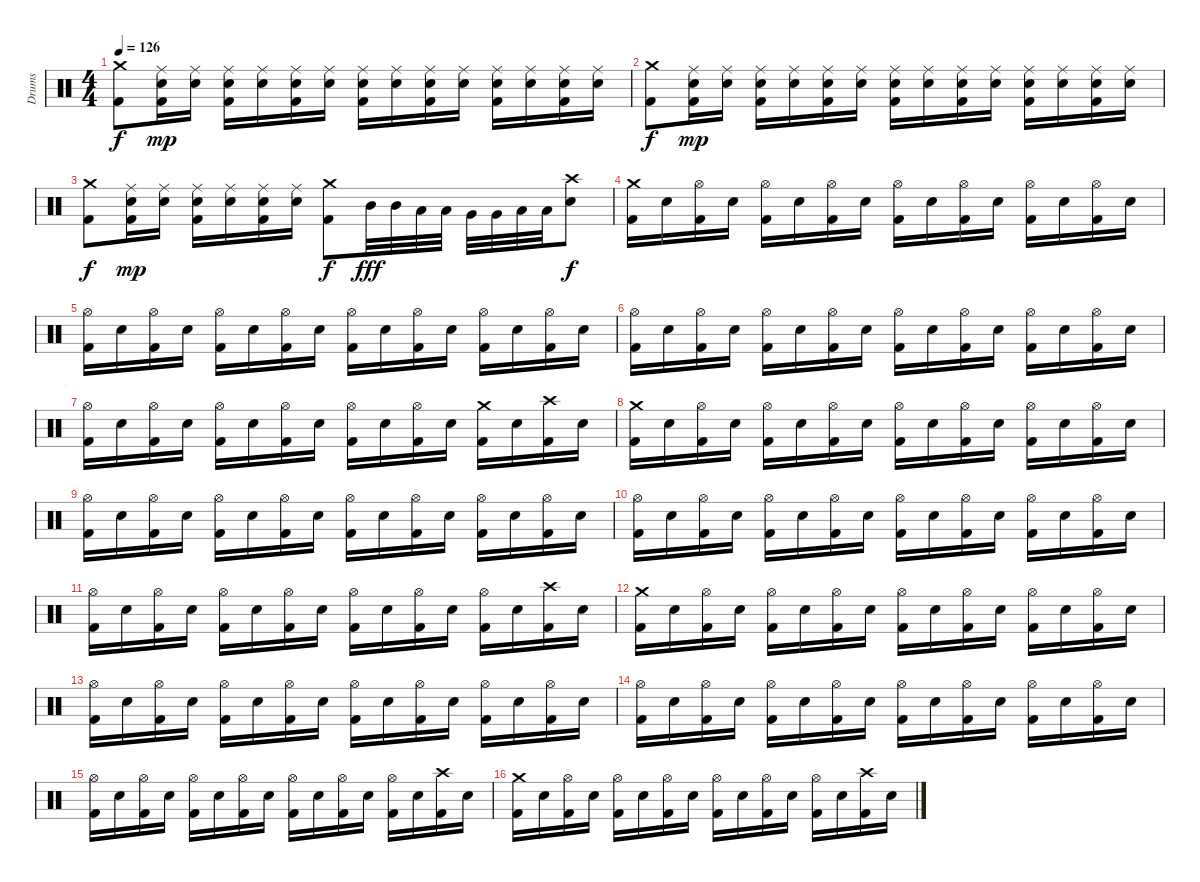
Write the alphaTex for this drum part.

\track ("Drums" "Drums") {instrument percussion}
\staff {score}
\articulation defaults
\ts (4 4)
\tempo 126
\clef neutral
\ks c
("Kick (hit) 2" "Crash medium (hit)").8{dy f} ("Kick (hit) 2" "Electric Snare (hit)" "Ride (middle)").16{dy mp} ("Electric Snare (hit)" "Ride (middle)").16 ("Kick (hit) 2" "Electric Snare (hit)" "Ride (middle)").16 ("Electric Snare (hit)" "Ride (middle)").16 ("Kick (hit) 2" "Electric Snare (hit)" "Ride (middle)").16 ("Electric Snare (hit)" "Ride (middle)").16 ("Kick (hit) 2" "Electric Snare (hit)" "Ride (middle)").16 ("Electric Snare (hit)" "Ride (middle)").16 ("Kick (hit) 2" "Electric Snare (hit)" "Ride (middle)").16 ("Electric Snare (hit)" "Ride (middle)").16 ("Kick (hit) 2" "Electric Snare (hit)" "Ride (middle)").16 ("Electric Snare (hit)" "Ride (middle)").16 ("Kick (hit) 2" "Electric Snare (hit)" "Ride (middle)").16 ("Electric Snare (hit)" "Ride (middle)").16 |
("Kick (hit) 2" "Crash medium (hit)").8{dy f} ("Kick (hit) 2" "Electric Snare (hit)" "Ride (middle)").16{dy mp} ("Electric Snare (hit)" "Ride (middle)").16 ("Kick (hit) 2" "Electric Snare (hit)" "Ride (middle)").16 ("Electric Snare (hit)" "Ride (middle)").16 ("Kick (hit) 2" "Electric Snare (hit)" "Ride (middle)").16 ("Electric Snare (hit)" "Ride (middle)").16 ("Kick (hit) 2" "Electric Snare (hit)" "Ride (middle)").16 ("Electric Snare (hit)" "Ride (middle)").16 ("Kick (hit) 2" "Electric Snare (hit)" "Ride (middle)").16 ("Electric Snare (hit)" "Ride (middle)").16 ("Kick (hit) 2" "Electric Snare (hit)" "Ride (middle)").16 ("Electric Snare (hit)" "Ride (middle)").16 ("Kick (hit) 2" "Electric Snare (hit)" "Ride (middle)").16 ("Electric Snare (hit)" "Ride (middle)").16 |
("Kick (hit) 2" "Crash medium (hit)").8{dy f} ("Kick (hit) 2" "Electric Snare (hit)" "Ride (middle)").16{dy mp} ("Electric Snare (hit)" "Ride (middle)").16 ("Kick (hit) 2" "Electric Snare (hit)" "Ride (middle)").16 ("Electric Snare (hit)" "Ride (middle)").16 ("Kick (hit) 2" "Electric Snare (hit)" "Ride (middle)").16 ("Electric Snare (hit)" "Ride (middle)").16 ("Kick (hit) 2" "Crash medium (hit)").8{dy f} "Mid Tom (hit)".32{dy fff} "Mid Tom (hit)".32 "Low Tom (hit)".32 "Low Tom (hit)".32 "Very Low Tom (hit)".32 "Very Low Tom (hit)".32 "Low Floor Tom (hit)".32 "Low Floor Tom (hit)".32 ("Electric Snare (hit)" "Crash high (hit)").8{dy f} |
("Kick (hit) 2" "Crash medium (hit)").16 "Electric Snare (hit)".16 ("Kick (hit) 2" "Hi-Hat (open)").16 "Electric Snare (hit)".16 ("Kick (hit) 2" "Hi-Hat (open)").16 "Electric Snare (hit)".16 ("Kick (hit) 2" "Hi-Hat (open)").16 "Electric Snare (hit)".16 ("Kick (hit) 2" "Hi-Hat (open)").16 "Electric Snare (hit)".16 ("Kick (hit) 2" "Hi-Hat (open)").16 "Electric Snare (hit)".16 ("Kick (hit) 2" "Hi-Hat (open)").16 "Electric Snare (hit)".16 ("Kick (hit) 2" "Hi-Hat (open)").16 "Electric Snare (hit)".16 |
("Kick (hit) 2" "Hi-Hat (open)").16 "Electric Snare (hit)".16 ("Kick (hit) 2" "Hi-Hat (open)").16 "Electric Snare (hit)".16 ("Kick (hit) 2" "Hi-Hat (open)").16 "Electric Snare (hit)".16 ("Kick (hit) 2" "Hi-Hat (open)").16 "Electric Snare (hit)".16 ("Kick (hit) 2" "Hi-Hat (open)").16 "Electric Snare (hit)".16 ("Kick (hit) 2" "Hi-Hat (open)").16 "Electric Snare (hit)".16 ("Kick (hit) 2" "Hi-Hat (open)").16 "Electric Snare (hit)".16 ("Kick (hit) 2" "Hi-Hat (open)").16 "Electric Snare (hit)".16 |
("Kick (hit) 2" "Hi-Hat (open)").16 "Electric Snare (hit)".16 ("Kick (hit) 2" "Hi-Hat (open)").16 "Electric Snare (hit)".16 ("Kick (hit) 2" "Hi-Hat (open)").16 "Electric Snare (hit)".16 ("Kick (hit) 2" "Hi-Hat (open)").16 "Electric Snare (hit)".16 ("Kick (hit) 2" "Hi-Hat (open)").16 "Electric Snare (hit)".16 ("Kick (hit) 2" "Hi-Hat (open)").16 "Electric Snare (hit)".16 ("Kick (hit) 2" "Hi-Hat (open)").16 "Electric Snare (hit)".16 ("Kick (hit) 2" "Hi-Hat (open)").16 "Electric Snare (hit)".16 |
("Kick (hit) 2" "Hi-Hat (open)").16 "Electric Snare (hit)".16 ("Kick (hit) 2" "Hi-Hat (open)").16 "Electric Snare (hit)".16 ("Kick (hit) 2" "Hi-Hat (open)").16 "Electric Snare (hit)".16 ("Kick (hit) 2" "Hi-Hat (open)").16 "Electric Snare (hit)".16 ("Kick (hit) 2" "Hi-Hat (open)").16 "Electric Snare (hit)".16 ("Kick (hit) 2" "Hi-Hat (open)").16 "Electric Snare (hit)".16 ("Kick (hit) 2" "Crash medium (hit)").16 "Electric Snare (hit)".16 ("Kick (hit) 2" "Crash high (hit)").16 "Electric Snare (hit)".16 |
("Kick (hit) 2" "Crash medium (hit)").16 "Electric Snare (hit)".16 ("Kick (hit) 2" "Hi-Hat (open)").16 "Electric Snare (hit)".16 ("Kick (hit) 2" "Hi-Hat (open)").16 "Electric Snare (hit)".16 ("Kick (hit) 2" "Hi-Hat (open)").16 "Electric Snare (hit)".16 ("Kick (hit) 2" "Hi-Hat (open)").16 "Electric Snare (hit)".16 ("Kick (hit) 2" "Hi-Hat (open)").16 "Electric Snare (hit)".16 ("Kick (hit) 2" "Hi-Hat (open)").16 "Electric Snare (hit)".16 ("Kick (hit) 2" "Hi-Hat (open)").16 "Electric Snare (hit)".16 |
("Kick (hit) 2" "Hi-Hat (open)").16 "Electric Snare (hit)".16 ("Kick (hit) 2" "Hi-Hat (open)").16 "Electric Snare (hit)".16 ("Kick (hit) 2" "Hi-Hat (open)").16 "Electric Snare (hit)".16 ("Kick (hit) 2" "Hi-Hat (open)").16 "Electric Snare (hit)".16 ("Kick (hit) 2" "Hi-Hat (open)").16 "Electric Snare (hit)".16 ("Kick (hit) 2" "Hi-Hat (open)").16 "Electric Snare (hit)".16 ("Kick (hit) 2" "Hi-Hat (open)").16 "Electric Snare (hit)".16 ("Kick (hit) 2" "Hi-Hat (open)").16 "Electric Snare (hit)".16 |
("Kick (hit) 2" "Hi-Hat (open)").16 "Electric Snare (hit)".16 ("Kick (hit) 2" "Hi-Hat (open)").16 "Electric Snare (hit)".16 ("Kick (hit) 2" "Hi-Hat (open)").16 "Electric Snare (hit)".16 ("Kick (hit) 2" "Hi-Hat (open)").16 "Electric Snare (hit)".16 ("Kick (hit) 2" "Hi-Hat (open)").16 "Electric Snare (hit)".16 ("Kick (hit) 2" "Hi-Hat (open)").16 "Electric Snare (hit)".16 ("Kick (hit) 2" "Hi-Hat (open)").16 "Electric Snare (hit)".16 ("Kick (hit) 2" "Hi-Hat (open)").16 "Electric Snare (hit)".16 |
("Kick (hit) 2" "Hi-Hat (open)").16 "Electric Snare (hit)".16 ("Kick (hit) 2" "Hi-Hat (open)").16 "Electric Snare (hit)".16 ("Kick (hit) 2" "Hi-Hat (open)").16 "Electric Snare (hit)".16 ("Kick (hit) 2" "Hi-Hat (open)").16 "Electric Snare (hit)".16 ("Kick (hit) 2" "Hi-Hat (open)").16 "Electric Snare (hit)".16 ("Kick (hit) 2" "Hi-Hat (open)").16 "Electric Snare (hit)".16 ("Kick (hit) 2" "Hi-Hat (open)").16 "Electric Snare (hit)".16 ("Kick (hit) 2" "Crash high (hit)").16 "Electric Snare (hit)".16 |
("Kick (hit) 2" "Crash medium (hit)").16 "Electric Snare (hit)".16 ("Kick (hit) 2" "Hi-Hat (open)").16 "Electric Snare (hit)".16 ("Kick (hit) 2" "Hi-Hat (open)").16 "Electric Snare (hit)".16 ("Kick (hit) 2" "Hi-Hat (open)").16 "Electric Snare (hit)".16 ("Kick (hit) 2" "Hi-Hat (open)").16 "Electric Snare (hit)".16 ("Kick (hit) 2" "Hi-Hat (open)").16 "Electric Snare (hit)".16 ("Kick (hit) 2" "Hi-Hat (open)").16 "Electric Snare (hit)".16 ("Kick (hit) 2" "Hi-Hat (open)").16 "Electric Snare (hit)".16 |
("Kick (hit) 2" "Hi-Hat (open)").16 "Electric Snare (hit)".16 ("Kick (hit) 2" "Hi-Hat (open)").16 "Electric Snare (hit)".16 ("Kick (hit) 2" "Hi-Hat (open)").16 "Electric Snare (hit)".16 ("Kick (hit) 2" "Hi-Hat (open)").16 "Electric Snare (hit)".16 ("Kick (hit) 2" "Hi-Hat (open)").16 "Electric Snare (hit)".16 ("Kick (hit) 2" "Hi-Hat (open)").16 "Electric Snare (hit)".16 ("Kick (hit) 2" "Hi-Hat (open)").16 "Electric Snare (hit)".16 ("Kick (hit) 2" "Hi-Hat (open)").16 "Electric Snare (hit)".16 |
("Kick (hit) 2" "Hi-Hat (open)").16 "Electric Snare (hit)".16 ("Kick (hit) 2" "Hi-Hat (open)").16 "Electric Snare (hit)".16 ("Kick (hit) 2" "Hi-Hat (open)").16 "Electric Snare (hit)".16 ("Kick (hit) 2" "Hi-Hat (open)").16 "Electric Snare (hit)".16 ("Kick (hit) 2" "Hi-Hat (open)").16 "Electric Snare (hit)".16 ("Kick (hit) 2" "Hi-Hat (open)").16 "Electric Snare (hit)".16 ("Kick (hit) 2" "Hi-Hat (open)").16 "Electric Snare (hit)".16 ("Kick (hit) 2" "Hi-Hat (open)").16 "Electric Snare (hit)".16 |
("Kick (hit) 2" "Hi-Hat (open)").16 "Electric Snare (hit)".16 ("Kick (hit) 2" "Hi-Hat (open)").16 "Electric Snare (hit)".16 ("Kick (hit) 2" "Hi-Hat (open)").16 "Electric Snare (hit)".16 ("Kick (hit) 2" "Hi-Hat (open)").16 "Electric Snare (hit)".16 ("Kick (hit) 2" "Hi-Hat (open)").16 "Electric Snare (hit)".16 ("Kick (hit) 2" "Hi-Hat (open)").16 "Electric Snare (hit)".16 ("Kick (hit) 2" "Hi-Hat (open)").16 "Electric Snare (hit)".16 ("Kick (hit) 2" "Crash high (hit)").16 "Electric Snare (hit)".16 |
("Kick (hit) 2" "Crash medium (hit)").16 "Electric Snare (hit)".16 ("Kick (hit) 2" "Hi-Hat (open)").16 "Electric Snare (hit)".16 ("Kick (hit) 2" "Hi-Hat (open)").16 "Electric Snare (hit)".16 ("Kick (hit) 2" "Hi-Hat (open)").16 "Electric Snare (hit)".16 ("Kick (hit) 2" "Hi-Hat (open)").16 "Electric Snare (hit)".16 ("Kick (hit) 2" "Hi-Hat (open)").16 "Electric Snare (hit)".16 ("Kick (hit) 2" "Hi-Hat (open)").16 "Electric Snare (hit)".16 ("Kick (hit) 2" "Crash high (hit)").16 "Electric Snare (hit)".16
